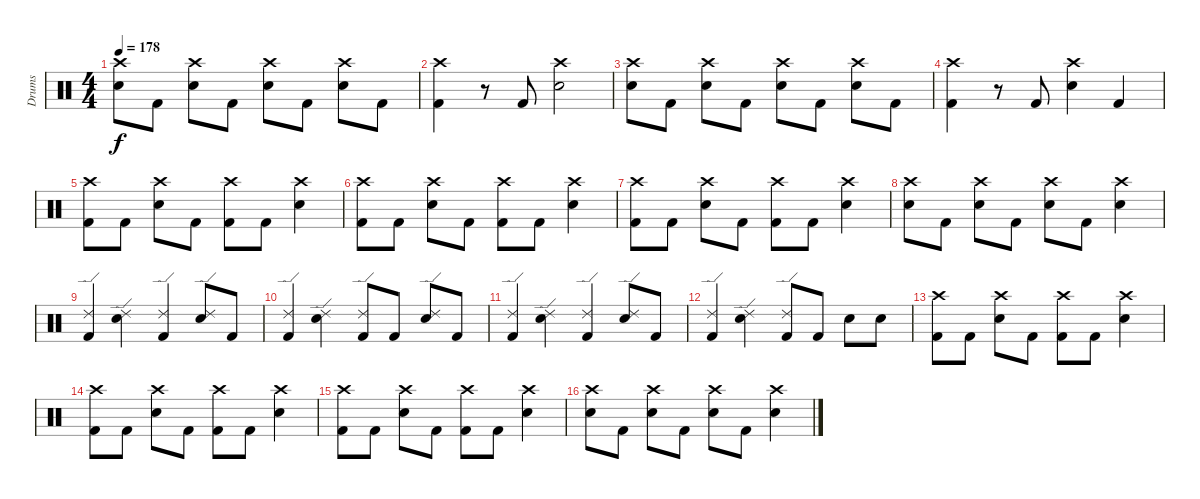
\track ("Drums" "Drums") {instrument percussion}
\staff {score}
\articulation defaults
\ts (4 4)
\tempo 178
\clef neutral
\ks c
("Crash high (hit)" "Electric Snare (hit)").8{dy f} "Kick (hit) 2".8 ("Crash high (hit)" "Electric Snare (hit)").8 "Kick (hit) 2".8 ("Crash high (hit)" "Electric Snare (hit)").8 "Kick (hit) 2".8 ("Crash high (hit)" "Electric Snare (hit)").8 "Kick (hit) 2".8 |
("Crash high (hit)" "Kick (hit) 2").4 r.8 "Kick (hit) 2".8 ("Crash high (hit)" "Electric Snare (hit)").2 |
("Crash high (hit)" "Electric Snare (hit)").8 "Kick (hit) 2".8 ("Crash high (hit)" "Electric Snare (hit)").8 "Kick (hit) 2".8 ("Crash high (hit)" "Electric Snare (hit)").8 "Kick (hit) 2".8 ("Crash high (hit)" "Electric Snare (hit)").8 "Kick (hit) 2".8 |
("Crash high (hit)" "Kick (hit) 2").4 r.8 "Kick (hit) 2".8 ("Crash high (hit)" "Electric Snare (hit)").4 "Kick (hit) 2".4 |
("Crash high (hit)" "Kick (hit) 2").8 "Kick (hit) 2".8 ("Crash high (hit)" "Electric Snare (hit)").8 "Kick (hit) 2".8 ("Crash high (hit)" "Kick (hit) 2").8 "Kick (hit) 2".8 ("Crash high (hit)" "Electric Snare (hit)").4 |
("Crash high (hit)" "Kick (hit) 2").8 "Kick (hit) 2".8 ("Crash high (hit)" "Electric Snare (hit)").8 "Kick (hit) 2".8 ("Crash high (hit)" "Kick (hit) 2").8 "Kick (hit) 2".8 ("Crash high (hit)" "Electric Snare (hit)").4 |
("Crash high (hit)" "Kick (hit) 2").8 "Kick (hit) 2".8 ("Crash high (hit)" "Electric Snare (hit)").8 "Kick (hit) 2".8 ("Crash high (hit)" "Kick (hit) 2").8 "Kick (hit) 2".8 ("Crash high (hit)" "Electric Snare (hit)").4 |
("Crash high (hit)" "Electric Snare (hit)").8 "Kick (hit) 2".8 ("Crash high (hit)" "Electric Snare (hit)").8 "Kick (hit) 2".8 ("Crash high (hit)" "Electric Snare (hit)").8 "Kick (hit) 2".8 ("Crash high (hit)" "Electric Snare (hit)").4 |
("Ride (edge) 2" "Kick (hit) 2").4 ("Ride (edge) 2" "Electric Snare (hit)").4 ("Ride (edge) 2" "Kick (hit) 2").4 ("Ride (edge) 2" "Electric Snare (hit)").8 "Kick (hit) 2".8 |
("Ride (edge) 2" "Kick (hit) 2").4 ("Ride (edge) 2" "Electric Snare (hit)").4 ("Ride (edge) 2" "Kick (hit) 2").8 "Kick (hit) 2".8 ("Ride (edge) 2" "Electric Snare (hit)").8 "Kick (hit) 2".8 |
("Ride (edge) 2" "Kick (hit) 2").4 ("Ride (edge) 2" "Electric Snare (hit)").4 ("Ride (edge) 2" "Kick (hit) 2").4 ("Ride (edge) 2" "Electric Snare (hit)").8 "Kick (hit) 2".8 |
("Ride (edge) 2" "Kick (hit) 2").4 ("Ride (edge) 2" "Electric Snare (hit)").4 ("Ride (edge) 2" "Kick (hit) 2").8 "Kick (hit) 2".8 "Electric Snare (hit)".8 "Electric Snare (hit)".8 |
("Crash high (hit)" "Kick (hit) 2").8 "Kick (hit) 2".8 ("Crash high (hit)" "Electric Snare (hit)").8 "Kick (hit) 2".8 ("Crash high (hit)" "Kick (hit) 2").8 "Kick (hit) 2".8 ("Crash high (hit)" "Electric Snare (hit)").4 |
("Crash high (hit)" "Kick (hit) 2").8 "Kick (hit) 2".8 ("Crash high (hit)" "Electric Snare (hit)").8 "Kick (hit) 2".8 ("Crash high (hit)" "Kick (hit) 2").8 "Kick (hit) 2".8 ("Crash high (hit)" "Electric Snare (hit)").4 |
("Crash high (hit)" "Kick (hit) 2").8 "Kick (hit) 2".8 ("Crash high (hit)" "Electric Snare (hit)").8 "Kick (hit) 2".8 ("Crash high (hit)" "Kick (hit) 2").8 "Kick (hit) 2".8 ("Crash high (hit)" "Electric Snare (hit)").4 |
("Crash high (hit)" "Electric Snare (hit)").8 "Kick (hit) 2".8 ("Crash high (hit)" "Electric Snare (hit)").8 "Kick (hit) 2".8 ("Crash high (hit)" "Electric Snare (hit)").8 "Kick (hit) 2".8 ("Crash high (hit)" "Electric Snare (hit)").4
